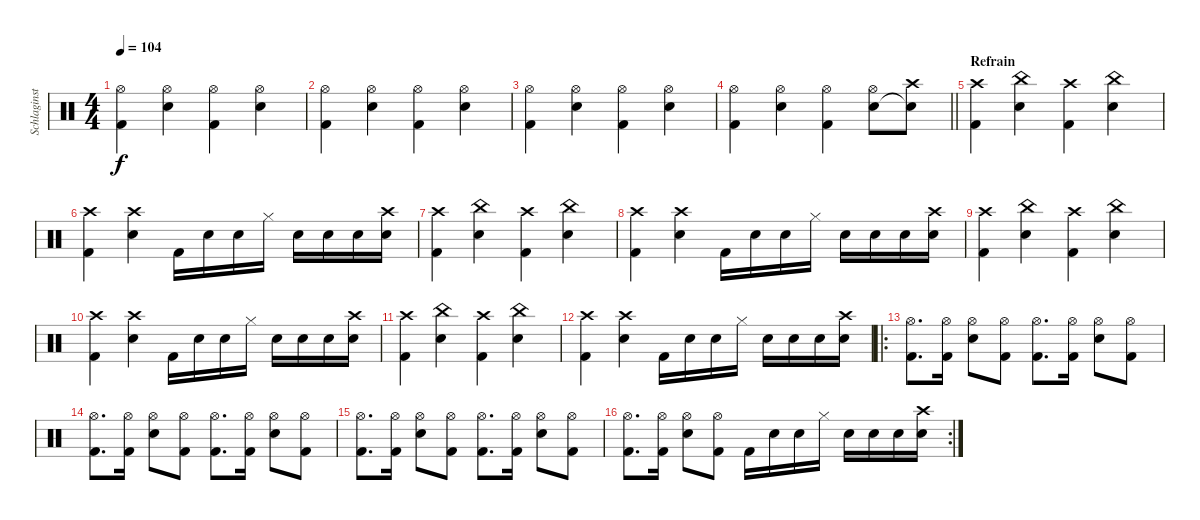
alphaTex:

\track ("Schlaginstrumente - Auswahl" "Schlaginst") {instrument percussion}
\staff {score}
\articulation defaults
\ts (4 4)
\tempo 104
\clef neutral
\ks c
("Hi-Hat (open)" "Kick (hit) 2").4{dy f} ("Hi-Hat (open)" "Electric Snare (hit)").4 ("Hi-Hat (open)" "Kick (hit) 2").4 ("Hi-Hat (open)" "Electric Snare (hit)").4 |
("Hi-Hat (open)" "Kick (hit) 2").4 ("Hi-Hat (open)" "Electric Snare (hit)").4 ("Hi-Hat (open)" "Kick (hit) 2").4 ("Hi-Hat (open)" "Electric Snare (hit)").4 |
("Hi-Hat (open)" "Kick (hit) 2").4 ("Hi-Hat (open)" "Electric Snare (hit)").4 ("Hi-Hat (open)" "Kick (hit) 2").4 ("Hi-Hat (open)" "Electric Snare (hit)").4 |
\barLineRight lightlight
("Hi-Hat (open)" "Kick (hit) 2").4 ("Hi-Hat (open)" "Electric Snare (hit)").4 ("Hi-Hat (open)" "Kick (hit) 2").4 ("Hi-Hat (open)" "Electric Snare (hit)").8 ("Crash high (hit)" "Electric Snare (hit)"{t}).8 |
\section ("" "Refrain")
("Crash high (hit)" "Kick (hit) 2").4 ("China (hit)" "Electric Snare (hit)").4 ("Crash high (hit)" "Kick (hit) 2").4 ("China (hit)" "Electric Snare (hit)").4 |
("Crash high (hit)" "Kick (hit) 2").4 ("Crash high (hit)" "Electric Snare (hit)").4 "Kick (hit) 2".16 "Electric Snare (hit)".16 "Electric Snare (hit)".16 "Hi-Hat (closed)".16 "Electric Snare (hit)".16 "Electric Snare (hit)".16 "Electric Snare (hit)".16 ("Crash high (hit)" "Electric Snare (hit)").16 |
("Crash high (hit)" "Kick (hit) 2").4 ("China (hit)" "Electric Snare (hit)").4 ("Crash high (hit)" "Kick (hit) 2").4 ("China (hit)" "Electric Snare (hit)").4 |
("Crash high (hit)" "Kick (hit) 2").4 ("Crash high (hit)" "Electric Snare (hit)").4 "Kick (hit) 2".16 "Electric Snare (hit)".16 "Electric Snare (hit)".16 "Hi-Hat (closed)".16 "Electric Snare (hit)".16 "Electric Snare (hit)".16 "Electric Snare (hit)".16 ("Crash high (hit)" "Electric Snare (hit)").16 |
("Crash high (hit)" "Kick (hit) 2").4 ("China (hit)" "Electric Snare (hit)").4 ("Crash high (hit)" "Kick (hit) 2").4 ("China (hit)" "Electric Snare (hit)").4 |
("Crash high (hit)" "Kick (hit) 2").4 ("Crash high (hit)" "Electric Snare (hit)").4 "Kick (hit) 2".16 "Electric Snare (hit)".16 "Electric Snare (hit)".16 "Hi-Hat (closed)".16 "Electric Snare (hit)".16 "Electric Snare (hit)".16 "Electric Snare (hit)".16 ("Crash high (hit)" "Electric Snare (hit)").16 |
("Crash high (hit)" "Kick (hit) 2").4 ("China (hit)" "Electric Snare (hit)").4 ("Crash high (hit)" "Kick (hit) 2").4 ("China (hit)" "Electric Snare (hit)").4 |
("Crash high (hit)" "Kick (hit) 2").4 ("Crash high (hit)" "Electric Snare (hit)").4 "Kick (hit) 2".16 "Electric Snare (hit)".16 "Electric Snare (hit)".16 "Hi-Hat (closed)".16 "Electric Snare (hit)".16 "Electric Snare (hit)".16 "Electric Snare (hit)".16 ("Crash high (hit)" "Electric Snare (hit)").16 |
\ro
("Hi-Hat (open)" "Kick (hit) 2").8{d} ("Hi-Hat (open)" "Kick (hit) 2").16 ("Hi-Hat (open)" "Electric Snare (hit)").8 ("Hi-Hat (open)" "Kick (hit) 2").8 ("Hi-Hat (open)" "Kick (hit) 2").8{d} ("Hi-Hat (open)" "Kick (hit) 2").16 ("Hi-Hat (open)" "Electric Snare (hit)").8 ("Hi-Hat (open)" "Kick (hit) 2").8 |
("Hi-Hat (open)" "Kick (hit) 2").8{d} ("Hi-Hat (open)" "Kick (hit) 2").16 ("Hi-Hat (open)" "Electric Snare (hit)").8 ("Hi-Hat (open)" "Kick (hit) 2").8 ("Hi-Hat (open)" "Kick (hit) 2").8{d} ("Hi-Hat (open)" "Kick (hit) 2").16 ("Hi-Hat (open)" "Electric Snare (hit)").8 ("Hi-Hat (open)" "Kick (hit) 2").8 |
("Hi-Hat (open)" "Kick (hit) 2").8{d} ("Hi-Hat (open)" "Kick (hit) 2").16 ("Hi-Hat (open)" "Electric Snare (hit)").8 ("Hi-Hat (open)" "Kick (hit) 2").8 ("Hi-Hat (open)" "Kick (hit) 2").8{d} ("Hi-Hat (open)" "Kick (hit) 2").16 ("Hi-Hat (open)" "Electric Snare (hit)").8 ("Hi-Hat (open)" "Kick (hit) 2").8 |
\rc 2
("Hi-Hat (open)" "Kick (hit) 2").8{d} ("Hi-Hat (open)" "Kick (hit) 2").16 ("Hi-Hat (open)" "Electric Snare (hit)").8 ("Hi-Hat (open)" "Kick (hit) 2").8 "Kick (hit) 2".16 "Electric Snare (hit)".16 "Electric Snare (hit)".16 "Hi-Hat (closed)".16 "Electric Snare (hit)".16 "Electric Snare (hit)".16 "Electric Snare (hit)".16 ("Crash high (hit)" "Electric Snare (hit)").16
